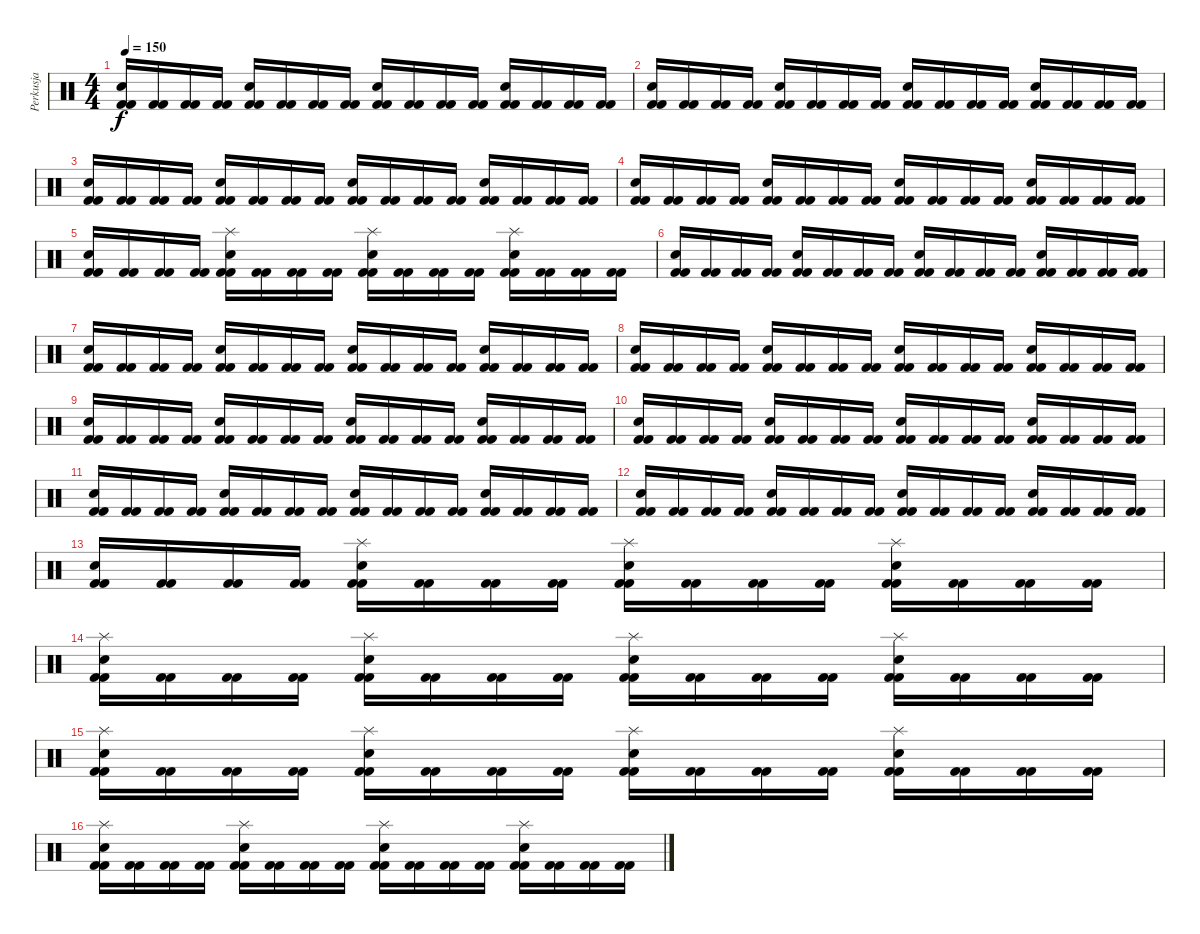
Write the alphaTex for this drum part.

\track ("Perkusja" "Perkusja") {instrument percussion}
\staff {score}
\articulation defaults
\ts (4 4)
\tempo 150
\clef neutral
\ks c
("Snare (hit) 2" "Kick (hit) 2" "Kick (hit) 2").16{dy f} ("Kick (hit) 2" "Kick (hit) 2").16 ("Kick (hit) 2" "Kick (hit) 2").16 ("Kick (hit) 2" "Kick (hit) 2").16 ("Electric Snare (hit)" "Kick (hit) 2" "Kick (hit) 2").16 ("Kick (hit) 2" "Kick (hit) 2").16 ("Kick (hit) 2" "Kick (hit) 2").16 ("Kick (hit) 2" "Kick (hit) 2").16 ("Snare (hit) 2" "Kick (hit) 2" "Kick (hit) 2").16 ("Kick (hit) 2" "Kick (hit) 2").16 ("Kick (hit) 2" "Kick (hit) 2").16 ("Kick (hit) 2" "Kick (hit) 2").16 ("Electric Snare (hit)" "Kick (hit) 2" "Kick (hit) 2").16 ("Kick (hit) 2" "Kick (hit) 2").16 ("Kick (hit) 2" "Kick (hit) 2").16 ("Kick (hit) 2" "Kick (hit) 2").16 |
("Snare (hit) 2" "Kick (hit) 2" "Kick (hit) 2").16 ("Kick (hit) 2" "Kick (hit) 2").16 ("Kick (hit) 2" "Kick (hit) 2").16 ("Kick (hit) 2" "Kick (hit) 2").16 ("Electric Snare (hit)" "Kick (hit) 2" "Kick (hit) 2").16 ("Kick (hit) 2" "Kick (hit) 2").16 ("Kick (hit) 2" "Kick (hit) 2").16 ("Kick (hit) 2" "Kick (hit) 2").16 ("Snare (hit) 2" "Kick (hit) 2" "Kick (hit) 2").16 ("Kick (hit) 2" "Kick (hit) 2").16 ("Kick (hit) 2" "Kick (hit) 2").16 ("Kick (hit) 2" "Kick (hit) 2").16 ("Electric Snare (hit)" "Kick (hit) 2" "Kick (hit) 2").16 ("Kick (hit) 2" "Kick (hit) 2").16 ("Kick (hit) 2" "Kick (hit) 2").16 ("Kick (hit) 2" "Kick (hit) 2").16 |
("Snare (hit) 2" "Kick (hit) 2" "Kick (hit) 2").16 ("Kick (hit) 2" "Kick (hit) 2").16 ("Kick (hit) 2" "Kick (hit) 2").16 ("Kick (hit) 2" "Kick (hit) 2").16 ("Electric Snare (hit)" "Kick (hit) 2" "Kick (hit) 2").16 ("Kick (hit) 2" "Kick (hit) 2").16 ("Kick (hit) 2" "Kick (hit) 2").16 ("Kick (hit) 2" "Kick (hit) 2").16 ("Snare (hit) 2" "Kick (hit) 2" "Kick (hit) 2").16 ("Kick (hit) 2" "Kick (hit) 2").16 ("Kick (hit) 2" "Kick (hit) 2").16 ("Kick (hit) 2" "Kick (hit) 2").16 ("Electric Snare (hit)" "Kick (hit) 2" "Kick (hit) 2").16 ("Kick (hit) 2" "Kick (hit) 2").16 ("Kick (hit) 2" "Kick (hit) 2").16 ("Kick (hit) 2" "Kick (hit) 2").16 |
("Snare (hit) 2" "Kick (hit) 2" "Kick (hit) 2").16 ("Kick (hit) 2" "Kick (hit) 2").16 ("Kick (hit) 2" "Kick (hit) 2").16 ("Kick (hit) 2" "Kick (hit) 2").16 ("Electric Snare (hit)" "Kick (hit) 2" "Kick (hit) 2").16 ("Kick (hit) 2" "Kick (hit) 2").16 ("Kick (hit) 2" "Kick (hit) 2").16 ("Kick (hit) 2" "Kick (hit) 2").16 ("Snare (hit) 2" "Kick (hit) 2" "Kick (hit) 2").16 ("Kick (hit) 2" "Kick (hit) 2").16 ("Kick (hit) 2" "Kick (hit) 2").16 ("Kick (hit) 2" "Kick (hit) 2").16 ("Electric Snare (hit)" "Kick (hit) 2" "Kick (hit) 2").16 ("Kick (hit) 2" "Kick (hit) 2").16 ("Kick (hit) 2" "Kick (hit) 2").16 ("Kick (hit) 2" "Kick (hit) 2").16 |
("Snare (hit) 2" "Kick (hit) 2" "Kick (hit) 2").16 ("Kick (hit) 2" "Kick (hit) 2").16 ("Kick (hit) 2" "Kick (hit) 2").16 ("Kick (hit) 2" "Kick (hit) 2").16 ("Splash (hit)" "Electric Snare (hit)" "Kick (hit) 2" "Kick (hit) 2").16 ("Kick (hit) 2" "Kick (hit) 2").16 ("Kick (hit) 2" "Kick (hit) 2").16 ("Kick (hit) 2" "Kick (hit) 2").16 ("Splash (hit)" "Snare (hit) 2" "Kick (hit) 2" "Kick (hit) 2").16 ("Kick (hit) 2" "Kick (hit) 2").16 ("Kick (hit) 2" "Kick (hit) 2").16 ("Kick (hit) 2" "Kick (hit) 2").16 ("Splash (hit)" "Electric Snare (hit)" "Kick (hit) 2" "Kick (hit) 2").16 ("Kick (hit) 2" "Kick (hit) 2").16 ("Kick (hit) 2" "Kick (hit) 2").16 ("Kick (hit) 2" "Kick (hit) 2").16 |
("Snare (hit) 2" "Kick (hit) 2" "Kick (hit) 2").16 ("Kick (hit) 2" "Kick (hit) 2").16 ("Kick (hit) 2" "Kick (hit) 2").16 ("Kick (hit) 2" "Kick (hit) 2").16 ("Electric Snare (hit)" "Kick (hit) 2" "Kick (hit) 2").16 ("Kick (hit) 2" "Kick (hit) 2").16 ("Kick (hit) 2" "Kick (hit) 2").16 ("Kick (hit) 2" "Kick (hit) 2").16 ("Snare (hit) 2" "Kick (hit) 2" "Kick (hit) 2").16 ("Kick (hit) 2" "Kick (hit) 2").16 ("Kick (hit) 2" "Kick (hit) 2").16 ("Kick (hit) 2" "Kick (hit) 2").16 ("Electric Snare (hit)" "Kick (hit) 2" "Kick (hit) 2").16 ("Kick (hit) 2" "Kick (hit) 2").16 ("Kick (hit) 2" "Kick (hit) 2").16 ("Kick (hit) 2" "Kick (hit) 2").16 |
("Snare (hit) 2" "Kick (hit) 2" "Kick (hit) 2").16 ("Kick (hit) 2" "Kick (hit) 2").16 ("Kick (hit) 2" "Kick (hit) 2").16 ("Kick (hit) 2" "Kick (hit) 2").16 ("Electric Snare (hit)" "Kick (hit) 2" "Kick (hit) 2").16 ("Kick (hit) 2" "Kick (hit) 2").16 ("Kick (hit) 2" "Kick (hit) 2").16 ("Kick (hit) 2" "Kick (hit) 2").16 ("Snare (hit) 2" "Kick (hit) 2" "Kick (hit) 2").16 ("Kick (hit) 2" "Kick (hit) 2").16 ("Kick (hit) 2" "Kick (hit) 2").16 ("Kick (hit) 2" "Kick (hit) 2").16 ("Electric Snare (hit)" "Kick (hit) 2" "Kick (hit) 2").16 ("Kick (hit) 2" "Kick (hit) 2").16 ("Kick (hit) 2" "Kick (hit) 2").16 ("Kick (hit) 2" "Kick (hit) 2").16 |
("Snare (hit) 2" "Kick (hit) 2" "Kick (hit) 2").16 ("Kick (hit) 2" "Kick (hit) 2").16 ("Kick (hit) 2" "Kick (hit) 2").16 ("Kick (hit) 2" "Kick (hit) 2").16 ("Electric Snare (hit)" "Kick (hit) 2" "Kick (hit) 2").16 ("Kick (hit) 2" "Kick (hit) 2").16 ("Kick (hit) 2" "Kick (hit) 2").16 ("Kick (hit) 2" "Kick (hit) 2").16 ("Snare (hit) 2" "Kick (hit) 2" "Kick (hit) 2").16 ("Kick (hit) 2" "Kick (hit) 2").16 ("Kick (hit) 2" "Kick (hit) 2").16 ("Kick (hit) 2" "Kick (hit) 2").16 ("Electric Snare (hit)" "Kick (hit) 2" "Kick (hit) 2").16 ("Kick (hit) 2" "Kick (hit) 2").16 ("Kick (hit) 2" "Kick (hit) 2").16 ("Kick (hit) 2" "Kick (hit) 2").16 |
("Snare (hit) 2" "Kick (hit) 2" "Kick (hit) 2").16 ("Kick (hit) 2" "Kick (hit) 2").16 ("Kick (hit) 2" "Kick (hit) 2").16 ("Kick (hit) 2" "Kick (hit) 2").16 ("Electric Snare (hit)" "Kick (hit) 2" "Kick (hit) 2").16 ("Kick (hit) 2" "Kick (hit) 2").16 ("Kick (hit) 2" "Kick (hit) 2").16 ("Kick (hit) 2" "Kick (hit) 2").16 ("Snare (hit) 2" "Kick (hit) 2" "Kick (hit) 2").16 ("Kick (hit) 2" "Kick (hit) 2").16 ("Kick (hit) 2" "Kick (hit) 2").16 ("Kick (hit) 2" "Kick (hit) 2").16 ("Electric Snare (hit)" "Kick (hit) 2" "Kick (hit) 2").16 ("Kick (hit) 2" "Kick (hit) 2").16 ("Kick (hit) 2" "Kick (hit) 2").16 ("Kick (hit) 2" "Kick (hit) 2").16 |
("Snare (hit) 2" "Kick (hit) 2" "Kick (hit) 2").16 ("Kick (hit) 2" "Kick (hit) 2").16 ("Kick (hit) 2" "Kick (hit) 2").16 ("Kick (hit) 2" "Kick (hit) 2").16 ("Electric Snare (hit)" "Kick (hit) 2" "Kick (hit) 2").16 ("Kick (hit) 2" "Kick (hit) 2").16 ("Kick (hit) 2" "Kick (hit) 2").16 ("Kick (hit) 2" "Kick (hit) 2").16 ("Snare (hit) 2" "Kick (hit) 2" "Kick (hit) 2").16 ("Kick (hit) 2" "Kick (hit) 2").16 ("Kick (hit) 2" "Kick (hit) 2").16 ("Kick (hit) 2" "Kick (hit) 2").16 ("Electric Snare (hit)" "Kick (hit) 2" "Kick (hit) 2").16 ("Kick (hit) 2" "Kick (hit) 2").16 ("Kick (hit) 2" "Kick (hit) 2").16 ("Kick (hit) 2" "Kick (hit) 2").16 |
("Snare (hit) 2" "Kick (hit) 2" "Kick (hit) 2").16 ("Kick (hit) 2" "Kick (hit) 2").16 ("Kick (hit) 2" "Kick (hit) 2").16 ("Kick (hit) 2" "Kick (hit) 2").16 ("Electric Snare (hit)" "Kick (hit) 2" "Kick (hit) 2").16 ("Kick (hit) 2" "Kick (hit) 2").16 ("Kick (hit) 2" "Kick (hit) 2").16 ("Kick (hit) 2" "Kick (hit) 2").16 ("Snare (hit) 2" "Kick (hit) 2" "Kick (hit) 2").16 ("Kick (hit) 2" "Kick (hit) 2").16 ("Kick (hit) 2" "Kick (hit) 2").16 ("Kick (hit) 2" "Kick (hit) 2").16 ("Electric Snare (hit)" "Kick (hit) 2" "Kick (hit) 2").16 ("Kick (hit) 2" "Kick (hit) 2").16 ("Kick (hit) 2" "Kick (hit) 2").16 ("Kick (hit) 2" "Kick (hit) 2").16 |
("Snare (hit) 2" "Kick (hit) 2" "Kick (hit) 2").16 ("Kick (hit) 2" "Kick (hit) 2").16 ("Kick (hit) 2" "Kick (hit) 2").16 ("Kick (hit) 2" "Kick (hit) 2").16 ("Electric Snare (hit)" "Kick (hit) 2" "Kick (hit) 2").16 ("Kick (hit) 2" "Kick (hit) 2").16 ("Kick (hit) 2" "Kick (hit) 2").16 ("Kick (hit) 2" "Kick (hit) 2").16 ("Snare (hit) 2" "Kick (hit) 2" "Kick (hit) 2").16 ("Kick (hit) 2" "Kick (hit) 2").16 ("Kick (hit) 2" "Kick (hit) 2").16 ("Kick (hit) 2" "Kick (hit) 2").16 ("Electric Snare (hit)" "Kick (hit) 2" "Kick (hit) 2").16 ("Kick (hit) 2" "Kick (hit) 2").16 ("Kick (hit) 2" "Kick (hit) 2").16 ("Kick (hit) 2" "Kick (hit) 2").16 |
("Snare (hit) 2" "Kick (hit) 2" "Kick (hit) 2").16 ("Kick (hit) 2" "Kick (hit) 2").16 ("Kick (hit) 2" "Kick (hit) 2").16 ("Kick (hit) 2" "Kick (hit) 2").16 ("Splash (hit)" "Electric Snare (hit)" "Kick (hit) 2" "Kick (hit) 2").16 ("Kick (hit) 2" "Kick (hit) 2").16 ("Kick (hit) 2" "Kick (hit) 2").16 ("Kick (hit) 2" "Kick (hit) 2").16 ("Splash (hit)" "Snare (hit) 2" "Kick (hit) 2" "Kick (hit) 2").16 ("Kick (hit) 2" "Kick (hit) 2").16 ("Kick (hit) 2" "Kick (hit) 2").16 ("Kick (hit) 2" "Kick (hit) 2").16 ("Splash (hit)" "Electric Snare (hit)" "Kick (hit) 2" "Kick (hit) 2").16 ("Kick (hit) 2" "Kick (hit) 2").16 ("Kick (hit) 2" "Kick (hit) 2").16 ("Kick (hit) 2" "Kick (hit) 2").16 |
("Splash (hit)" "Snare (hit) 2" "Kick (hit) 2" "Kick (hit) 2").16 ("Kick (hit) 2" "Kick (hit) 2").16 ("Kick (hit) 2" "Kick (hit) 2").16 ("Kick (hit) 2" "Kick (hit) 2").16 ("Splash (hit)" "Electric Snare (hit)" "Kick (hit) 2" "Kick (hit) 2").16 ("Kick (hit) 2" "Kick (hit) 2").16 ("Kick (hit) 2" "Kick (hit) 2").16 ("Kick (hit) 2" "Kick (hit) 2").16 ("Splash (hit)" "Snare (hit) 2" "Kick (hit) 2" "Kick (hit) 2").16 ("Kick (hit) 2" "Kick (hit) 2").16 ("Kick (hit) 2" "Kick (hit) 2").16 ("Kick (hit) 2" "Kick (hit) 2").16 ("Splash (hit)" "Electric Snare (hit)" "Kick (hit) 2" "Kick (hit) 2").16 ("Kick (hit) 2" "Kick (hit) 2").16 ("Kick (hit) 2" "Kick (hit) 2").16 ("Kick (hit) 2" "Kick (hit) 2").16 |
("Splash (hit)" "Snare (hit) 2" "Kick (hit) 2" "Kick (hit) 2").16 ("Kick (hit) 2" "Kick (hit) 2").16 ("Kick (hit) 2" "Kick (hit) 2").16 ("Kick (hit) 2" "Kick (hit) 2").16 ("Splash (hit)" "Electric Snare (hit)" "Kick (hit) 2" "Kick (hit) 2").16 ("Kick (hit) 2" "Kick (hit) 2").16 ("Kick (hit) 2" "Kick (hit) 2").16 ("Kick (hit) 2" "Kick (hit) 2").16 ("Splash (hit)" "Snare (hit) 2" "Kick (hit) 2" "Kick (hit) 2").16 ("Kick (hit) 2" "Kick (hit) 2").16 ("Kick (hit) 2" "Kick (hit) 2").16 ("Kick (hit) 2" "Kick (hit) 2").16 ("Splash (hit)" "Electric Snare (hit)" "Kick (hit) 2" "Kick (hit) 2").16 ("Kick (hit) 2" "Kick (hit) 2").16 ("Kick (hit) 2" "Kick (hit) 2").16 ("Kick (hit) 2" "Kick (hit) 2").16 |
("Splash (hit)" "Snare (hit) 2" "Kick (hit) 2" "Kick (hit) 2").16 ("Kick (hit) 2" "Kick (hit) 2").16 ("Kick (hit) 2" "Kick (hit) 2").16 ("Kick (hit) 2" "Kick (hit) 2").16 ("Splash (hit)" "Electric Snare (hit)" "Kick (hit) 2" "Kick (hit) 2").16 ("Kick (hit) 2" "Kick (hit) 2").16 ("Kick (hit) 2" "Kick (hit) 2").16 ("Kick (hit) 2" "Kick (hit) 2").16 ("Splash (hit)" "Snare (hit) 2" "Kick (hit) 2" "Kick (hit) 2").16 ("Kick (hit) 2" "Kick (hit) 2").16 ("Kick (hit) 2" "Kick (hit) 2").16 ("Kick (hit) 2" "Kick (hit) 2").16 ("Splash (hit)" "Electric Snare (hit)" "Kick (hit) 2" "Kick (hit) 2").16 ("Kick (hit) 2" "Kick (hit) 2").16 ("Kick (hit) 2" "Kick (hit) 2").16 ("Kick (hit) 2" "Kick (hit) 2").16
